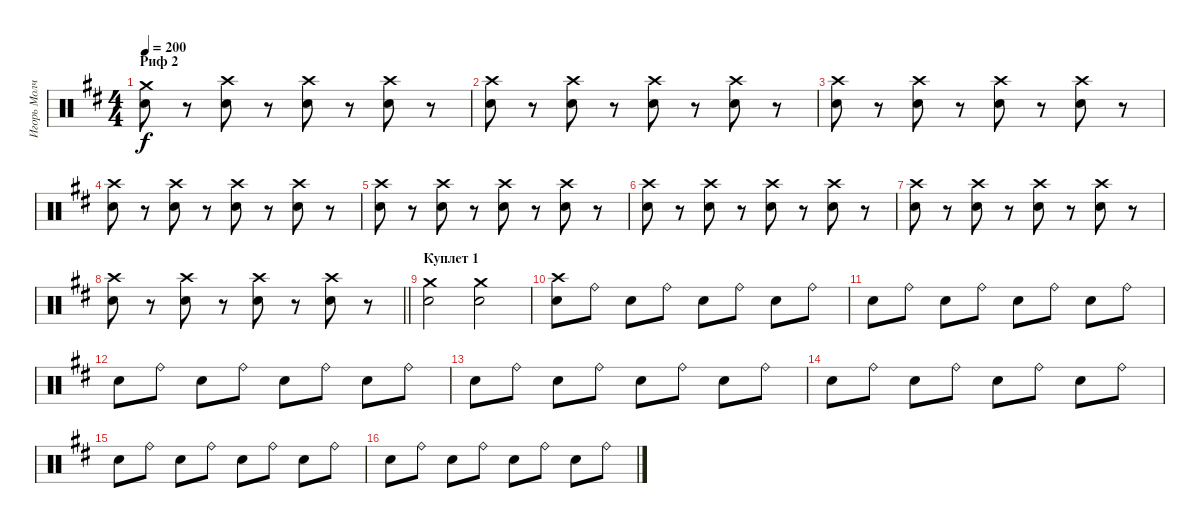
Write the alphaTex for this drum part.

\track ("Игорь Молчанов" "Игорь Молч") {instrument percussion}
\staff {score}
\articulation defaults
\ts (4 4)
\section ("" "Риф 2")
\tempo 200
\clef neutral
\ks d
("Crash medium (hit)" "Snare (hit) 2").8{dy f} r.8 ("Crash high (hit)" "Snare (hit) 2").8 r.8 ("Crash high (hit)" "Snare (hit) 2").8 r.8 ("Crash high (hit)" "Snare (hit) 2").8 r.8 |
("Crash high (hit)" "Snare (hit) 2").8 r.8 ("Crash high (hit)" "Snare (hit) 2").8 r.8 ("Crash high (hit)" "Snare (hit) 2").8 r.8 ("Crash high (hit)" "Snare (hit) 2").8 r.8 |
("Crash high (hit)" "Snare (hit) 2").8 r.8 ("Crash high (hit)" "Snare (hit) 2").8 r.8 ("Crash high (hit)" "Snare (hit) 2").8 r.8 ("Crash high (hit)" "Snare (hit) 2").8 r.8 |
("Crash high (hit)" "Snare (hit) 2").8 r.8 ("Crash high (hit)" "Snare (hit) 2").8 r.8 ("Crash high (hit)" "Snare (hit) 2").8 r.8 ("Crash high (hit)" "Snare (hit) 2").8 r.8 |
("Crash high (hit)" "Snare (hit) 2").8 r.8 ("Crash high (hit)" "Snare (hit) 2").8 r.8 ("Crash high (hit)" "Snare (hit) 2").8 r.8 ("Crash high (hit)" "Snare (hit) 2").8 r.8 |
("Crash high (hit)" "Snare (hit) 2").8 r.8 ("Crash high (hit)" "Snare (hit) 2").8 r.8 ("Crash high (hit)" "Snare (hit) 2").8 r.8 ("Crash high (hit)" "Snare (hit) 2").8 r.8 |
("Crash high (hit)" "Snare (hit) 2").8 r.8 ("Crash high (hit)" "Snare (hit) 2").8 r.8 ("Crash high (hit)" "Snare (hit) 2").8 r.8 ("Crash high (hit)" "Snare (hit) 2").8 r.8 |
\barLineRight lightlight
("Crash high (hit)" "Snare (hit) 2").8 r.8 ("Crash high (hit)" "Snare (hit) 2").8 r.8 ("Crash high (hit)" "Snare (hit) 2").8 r.8 ("Crash high (hit)" "Snare (hit) 2").8 r.8 |
\section ("" "Куплет 1")
("Crash medium (hit)" "Snare (hit) 2").2 ("Crash medium (hit)" "Snare (hit) 2").2 |
("Crash high (hit)" "Snare (hit) 2").8 "Ride (bell)".8 "Snare (hit) 2".8 "Ride (bell)".8 "Snare (hit) 2".8 "Ride (bell)".8 "Snare (hit) 2".8 "Ride (bell)".8 |
"Snare (hit) 2".8 "Ride (bell)".8 "Snare (hit) 2".8 "Ride (bell)".8 "Snare (hit) 2".8 "Ride (bell)".8 "Snare (hit) 2".8 "Ride (bell)".8 |
"Snare (hit) 2".8 "Ride (bell)".8 "Snare (hit) 2".8 "Ride (bell)".8 "Snare (hit) 2".8 "Ride (bell)".8 "Snare (hit) 2".8 "Ride (bell)".8 |
"Snare (hit) 2".8 "Ride (bell)".8 "Snare (hit) 2".8 "Ride (bell)".8 "Snare (hit) 2".8 "Ride (bell)".8 "Snare (hit) 2".8 "Ride (bell)".8 |
"Snare (hit) 2".8 "Ride (bell)".8 "Snare (hit) 2".8 "Ride (bell)".8 "Snare (hit) 2".8 "Ride (bell)".8 "Snare (hit) 2".8 "Ride (bell)".8 |
"Snare (hit) 2".8 "Ride (bell)".8 "Snare (hit) 2".8 "Ride (bell)".8 "Snare (hit) 2".8 "Ride (bell)".8 "Snare (hit) 2".8 "Ride (bell)".8 |
"Snare (hit) 2".8 "Ride (bell)".8 "Snare (hit) 2".8 "Ride (bell)".8 "Snare (hit) 2".8 "Ride (bell)".8 "Snare (hit) 2".8 "Ride (bell)".8
